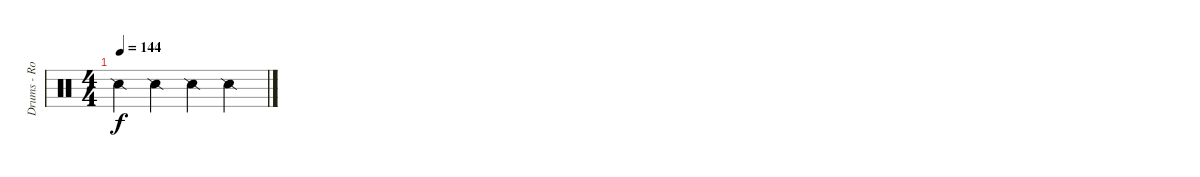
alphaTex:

\track ("Drums - Robert Hunecke-Rizzo" "Drums - Ro") {instrument percussion}
\staff {score}
\articulation defaults
\ts (4 4)
\tempo 144
\clef neutral
\ks c "Snare (side stick) 2".4{dy f} "Snare (side stick) 2".4 "Snare (side stick) 2".4 "Snare (side stick) 2".4
